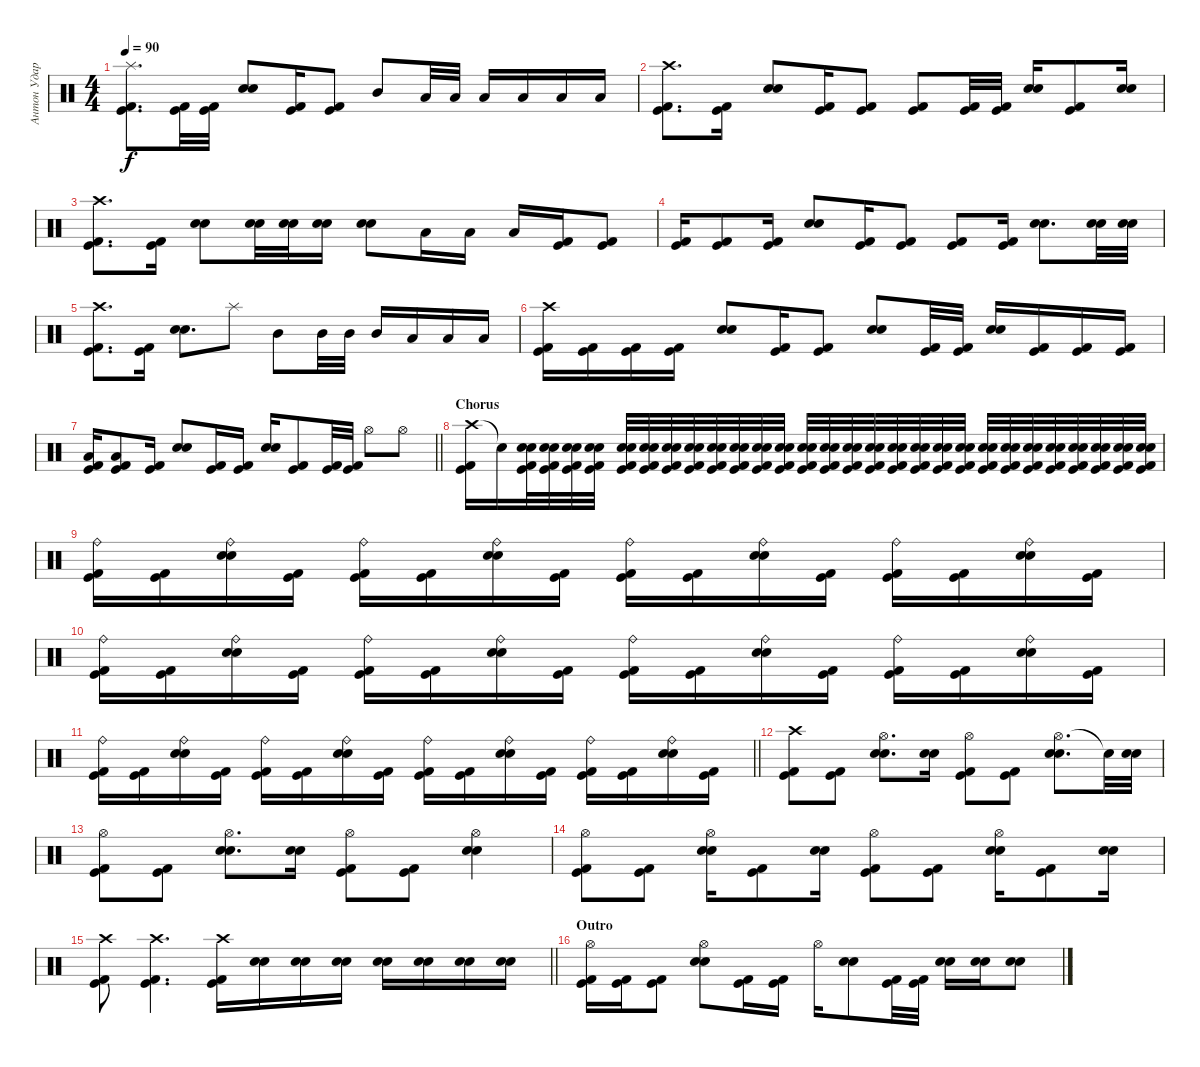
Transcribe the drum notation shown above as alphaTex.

\track ("Антон Ударные" "Антон Удар") {instrument percussion}
\staff {score}
\articulation defaults
\ts (4 4)
\tempo 90
\clef neutral
\ks c
("Splash (hit)" "Kick (hit) 2" "Kick (hit)").8{d dy f} ("Kick (hit) 2" "Kick (hit)").32 ("Kick (hit) 2" "Kick (hit)").32 ("Electric Snare (hit)" "Snare (hit) 2").8 ("Kick (hit) 2" "Kick (hit)").16 ("Kick (hit) 2" "Kick (hit)").8 "Mid Tom (hit)".8 "Low Tom (hit)".32 "Low Tom (hit)".32 "Low Floor Tom (hit)".16 "Low Floor Tom (hit)".16 "Low Floor Tom (hit)".16 "Low Floor Tom (hit)".16 |
("Crash high (hit)" "Kick (hit) 2" "Kick (hit)").8{d} ("Kick (hit) 2" "Kick (hit)").16 ("Electric Snare (hit)" "Snare (hit) 2").8 ("Kick (hit) 2" "Kick (hit)").16 ("Kick (hit) 2" "Kick (hit)").8 ("Kick (hit) 2" "Kick (hit)").8 ("Kick (hit) 2" "Kick (hit)").32 ("Kick (hit) 2" "Kick (hit)").32 ("Electric Snare (hit)" "Snare (hit) 2").16 ("Kick (hit) 2" "Kick (hit)").8 ("Electric Snare (hit)" "Snare (hit) 2").16 |
("Crash high (hit)" "Kick (hit) 2" "Kick (hit)").8{d} ("Kick (hit) 2" "Kick (hit)").16 ("Electric Snare (hit)" "Snare (hit) 2").8 ("Electric Snare (hit)" "Snare (hit) 2").32 ("Electric Snare (hit)" "Snare (hit) 2").32 ("Electric Snare (hit)" "Snare (hit) 2").16 ("Electric Snare (hit)" "Snare (hit) 2").8 "Low Tom (hit)".16 "Low Tom (hit)".16 "Low Floor Tom (hit)".16 ("Kick (hit) 2" "Kick (hit)").16 ("Kick (hit) 2" "Kick (hit)").8 |
("Kick (hit) 2" "Kick (hit)").16 ("Kick (hit) 2" "Kick (hit)").8 ("Kick (hit) 2" "Kick (hit)").16 ("Electric Snare (hit)" "Snare (hit) 2").8 ("Kick (hit) 2" "Kick (hit)").16 ("Kick (hit) 2" "Kick (hit)").8 ("Kick (hit) 2" "Kick (hit)").8 ("Kick (hit) 2" "Kick (hit)").16 ("Electric Snare (hit)" "Snare (hit) 2").8{d} ("Electric Snare (hit)" "Snare (hit) 2").32 ("Electric Snare (hit)" "Snare (hit) 2").32 |
("Crash high (hit)" "Kick (hit) 2" "Kick (hit)").8{d} ("Kick (hit) 2" "Kick (hit)").16 ("Electric Snare (hit)" "Snare (hit) 2").8{d} "Splash (hit)".8 "Mid Tom (hit)".8 "Mid Tom (hit)".32 "Mid Tom (hit)".32 "Mid Tom (hit)".16 "Low Tom (hit)".16 "Low Tom (hit)".16 "Low Floor Tom (hit)".16 |
("Crash high (hit)" "Kick (hit) 2" "Kick (hit)").16 ("Kick (hit) 2" "Kick (hit)").16 ("Kick (hit) 2" "Kick (hit)").16 ("Kick (hit) 2" "Kick (hit)").16 ("Electric Snare (hit)" "Snare (hit) 2").8 ("Kick (hit) 2" "Kick (hit)").16 ("Kick (hit) 2" "Kick (hit)").8 ("Electric Snare (hit)" "Snare (hit) 2").8 ("Kick (hit) 2" "Kick (hit)").32 ("Kick (hit) 2" "Kick (hit)").32 ("Electric Snare (hit)" "Snare (hit) 2").16 ("Kick (hit) 2" "Kick (hit)").16 ("Kick (hit) 2" "Kick (hit)").16 ("Kick (hit) 2" "Kick (hit)").16 |
\barLineRight lightlight
("Low Floor Tom (hit)" "Kick (hit) 2" "Kick (hit)").16 ("Low Floor Tom (hit)" "Kick (hit) 2" "Kick (hit)").8 ("Kick (hit) 2" "Kick (hit)").16 ("Electric Snare (hit)" "Snare (hit) 2").8 ("Kick (hit) 2" "Kick (hit)").16 ("Kick (hit) 2" "Kick (hit)").16 ("Electric Snare (hit)" "Snare (hit) 2").16 ("Kick (hit) 2" "Kick (hit)").8 ("Kick (hit) 2" "Kick (hit)").32 ("Kick (hit) 2" "Kick (hit)").32 "Hi-Hat (open)".8 "Hi-Hat (open)".8 |
\section ("" "Chorus")
("Crash high (hit)" "Kick (hit) 2" "Kick (hit)").16 "Snare (hit)"{t}.16{volume 5} ("Electric Snare (hit)" "Snare (hit) 2" "Kick (hit) 2" "Kick (hit)").32{volume 16} ("Electric Snare (hit)" "Snare (hit) 2" "Kick (hit) 2" "Kick (hit)").32 ("Electric Snare (hit)" "Snare (hit) 2" "Kick (hit) 2" "Kick (hit)").32 ("Electric Snare (hit)" "Snare (hit) 2" "Kick (hit) 2" "Kick (hit)").32 ("Electric Snare (hit)" "Snare (hit) 2" "Kick (hit) 2" "Kick (hit)").32 ("Electric Snare (hit)" "Snare (hit) 2" "Kick (hit) 2" "Kick (hit)").32 ("Electric Snare (hit)" "Snare (hit) 2" "Kick (hit) 2" "Kick (hit)").32 ("Electric Snare (hit)" "Snare (hit) 2" "Kick (hit) 2" "Kick (hit)").32 ("Electric Snare (hit)" "Snare (hit) 2" "Kick (hit) 2" "Kick (hit)").32 ("Electric Snare (hit)" "Snare (hit) 2" "Kick (hit) 2" "Kick (hit)").32 ("Electric Snare (hit)" "Snare (hit) 2" "Kick (hit) 2" "Kick (hit)").32 ("Electric Snare (hit)" "Snare (hit) 2" "Kick (hit) 2" "Kick (hit)").32 ("Electric Snare (hit)" "Snare (hit) 2" "Kick (hit) 2" "Kick (hit)").32 ("Electric Snare (hit)" "Snare (hit) 2" "Kick (hit) 2" "Kick (hit)").32 ("Electric Snare (hit)" "Snare (hit) 2" "Kick (hit) 2" "Kick (hit)").32 ("Electric Snare (hit)" "Snare (hit) 2" "Kick (hit) 2" "Kick (hit)").32 ("Electric Snare (hit)" "Snare (hit) 2" "Kick (hit) 2" "Kick (hit)").32 ("Electric Snare (hit)" "Snare (hit) 2" "Kick (hit) 2" "Kick (hit)").32 ("Electric Snare (hit)" "Snare (hit) 2" "Kick (hit) 2" "Kick (hit)").32 ("Electric Snare (hit)" "Snare (hit) 2" "Kick (hit) 2" "Kick (hit)").32 ("Electric Snare (hit)" "Snare (hit) 2" "Kick (hit) 2" "Kick (hit)").32 ("Electric Snare (hit)" "Snare (hit) 2" "Kick (hit) 2" "Kick (hit)").32 ("Electric Snare (hit)" "Snare (hit) 2" "Kick (hit) 2" "Kick (hit)").32 ("Electric Snare (hit)" "Snare (hit) 2" "Kick (hit) 2" "Kick (hit)").32 ("Electric Snare (hit)" "Snare (hit) 2" "Kick (hit) 2" "Kick (hit)").32 ("Electric Snare (hit)" "Snare (hit) 2" "Kick (hit) 2" "Kick (hit)").32 ("Electric Snare (hit)" "Snare (hit) 2" "Kick (hit) 2" "Kick (hit)").32 ("Electric Snare (hit)" "Snare (hit) 2" "Kick (hit) 2" "Kick (hit)").32 |
("Ride (bell)" "Kick (hit) 2" "Kick (hit)").16 ("Kick (hit) 2" "Kick (hit)").16 ("Ride (bell)" "Electric Snare (hit)" "Snare (hit) 2").16 ("Kick (hit) 2" "Kick (hit)").16 ("Ride (bell)" "Kick (hit) 2" "Kick (hit)").16 ("Kick (hit) 2" "Kick (hit)").16 ("Ride (bell)" "Electric Snare (hit)" "Snare (hit) 2").16 ("Kick (hit) 2" "Kick (hit)").16 ("Ride (bell)" "Kick (hit) 2" "Kick (hit)").16 ("Kick (hit) 2" "Kick (hit)").16 ("Ride (bell)" "Electric Snare (hit)" "Snare (hit) 2").16 ("Kick (hit) 2" "Kick (hit)").16 ("Ride (bell)" "Kick (hit) 2" "Kick (hit)").16 ("Kick (hit) 2" "Kick (hit)").16 ("Ride (bell)" "Electric Snare (hit)" "Snare (hit) 2").16 ("Kick (hit) 2" "Kick (hit)").16 |
("Ride (bell)" "Kick (hit) 2" "Kick (hit)").16 ("Kick (hit) 2" "Kick (hit)").16 ("Ride (bell)" "Electric Snare (hit)" "Snare (hit) 2").16 ("Kick (hit) 2" "Kick (hit)").16 ("Ride (bell)" "Kick (hit) 2" "Kick (hit)").16 ("Kick (hit) 2" "Kick (hit)").16 ("Ride (bell)" "Electric Snare (hit)" "Snare (hit) 2").16 ("Kick (hit) 2" "Kick (hit)").16 ("Ride (bell)" "Kick (hit) 2" "Kick (hit)").16 ("Kick (hit) 2" "Kick (hit)").16 ("Ride (bell)" "Electric Snare (hit)" "Snare (hit) 2").16 ("Kick (hit) 2" "Kick (hit)").16 ("Ride (bell)" "Kick (hit) 2" "Kick (hit)").16 ("Kick (hit) 2" "Kick (hit)").16 ("Ride (bell)" "Electric Snare (hit)" "Snare (hit) 2").16 ("Kick (hit) 2" "Kick (hit)").16 |
\barLineRight lightlight
("Ride (bell)" "Kick (hit) 2" "Kick (hit)").16 ("Kick (hit) 2" "Kick (hit)").16 ("Ride (bell)" "Electric Snare (hit)" "Snare (hit) 2").16 ("Kick (hit) 2" "Kick (hit)").16 ("Ride (bell)" "Kick (hit) 2" "Kick (hit)").16 ("Kick (hit) 2" "Kick (hit)").16 ("Ride (bell)" "Electric Snare (hit)" "Snare (hit) 2").16 ("Kick (hit) 2" "Kick (hit)").16 ("Ride (bell)" "Kick (hit) 2" "Kick (hit)").16 ("Kick (hit) 2" "Kick (hit)").16 ("Ride (bell)" "Electric Snare (hit)" "Snare (hit) 2").16 ("Kick (hit) 2" "Kick (hit)").16 ("Ride (bell)" "Kick (hit) 2" "Kick (hit)").16 ("Kick (hit) 2" "Kick (hit)").16 ("Ride (bell)" "Electric Snare (hit)" "Snare (hit) 2").16 ("Kick (hit) 2" "Kick (hit)").16 |
\section ("" "")
("Crash high (hit)" "Kick (hit) 2" "Kick (hit)").8 ("Kick (hit) 2" "Kick (hit)").8 ("Hi-Hat (open)" "Electric Snare (hit)" "Snare (hit) 2").8{d} ("Electric Snare (hit)" "Snare (hit) 2").16 ("Hi-Hat (open)" "Kick (hit) 2" "Kick (hit)").8 ("Kick (hit) 2" "Kick (hit)").8 ("Hi-Hat (open)" "Electric Snare (hit)" "Snare (hit) 2").8{d} "Snare (hit)"{t}.32 ("Electric Snare (hit)" "Snare (hit) 2").32 |
("Hi-Hat (open)" "Kick (hit) 2" "Kick (hit)").8 ("Kick (hit) 2" "Kick (hit)").8 ("Hi-Hat (open)" "Electric Snare (hit)" "Snare (hit) 2").8{d} ("Electric Snare (hit)" "Snare (hit) 2").16 ("Hi-Hat (open)" "Kick (hit) 2" "Kick (hit)").8 ("Kick (hit) 2" "Kick (hit)").8 ("Hi-Hat (open)" "Electric Snare (hit)" "Snare (hit) 2").4 |
("Hi-Hat (open)" "Kick (hit) 2" "Kick (hit)").8 ("Kick (hit) 2" "Kick (hit)").8 ("Hi-Hat (open)" "Electric Snare (hit)" "Snare (hit) 2").16 ("Kick (hit) 2" "Kick (hit)").8 ("Electric Snare (hit)" "Snare (hit) 2").16 ("Hi-Hat (open)" "Kick (hit) 2" "Kick (hit)").8 ("Kick (hit) 2" "Kick (hit)").8 ("Hi-Hat (open)" "Electric Snare (hit)" "Snare (hit) 2").16 ("Kick (hit) 2" "Kick (hit)").8 ("Electric Snare (hit)" "Snare (hit) 2").16 |
\barLineRight lightlight
("Crash high (hit)" "Kick (hit) 2" "Kick (hit)").8 ("Crash high (hit)" "Kick (hit) 2" "Kick (hit)").4{d} ("Crash high (hit)" "Kick (hit) 2" "Kick (hit)").16 ("Electric Snare (hit)" "Snare (hit) 2").16{bd 120} ("Electric Snare (hit)" "Snare (hit) 2").16 ("Electric Snare (hit)" "Snare (hit) 2").16 ("Electric Snare (hit)" "Snare (hit) 2").16 ("Electric Snare (hit)" "Snare (hit) 2").16 ("Electric Snare (hit)" "Snare (hit) 2").16 ("Electric Snare (hit)" "Snare (hit) 2").16 |
\section ("" "Outro")
("Hi-Hat (open)" "Kick (hit) 2" "Kick (hit)").16 ("Kick (hit) 2" "Kick (hit)").16 ("Kick (hit) 2" "Kick (hit)").8 ("Hi-Hat (open)" "Electric Snare (hit)" "Snare (hit) 2").8 ("Kick (hit) 2" "Kick (hit)").16 ("Kick (hit) 2" "Kick (hit)").16 "Hi-Hat (open)".16 ("Electric Snare (hit)" "Snare (hit) 2").8 ("Kick (hit) 2" "Kick (hit)").32 ("Kick (hit) 2" "Kick (hit)").32 ("Electric Snare (hit)" "Snare (hit) 2").16 ("Electric Snare (hit)" "Snare (hit) 2").16 ("Electric Snare (hit)" "Snare (hit) 2").8
